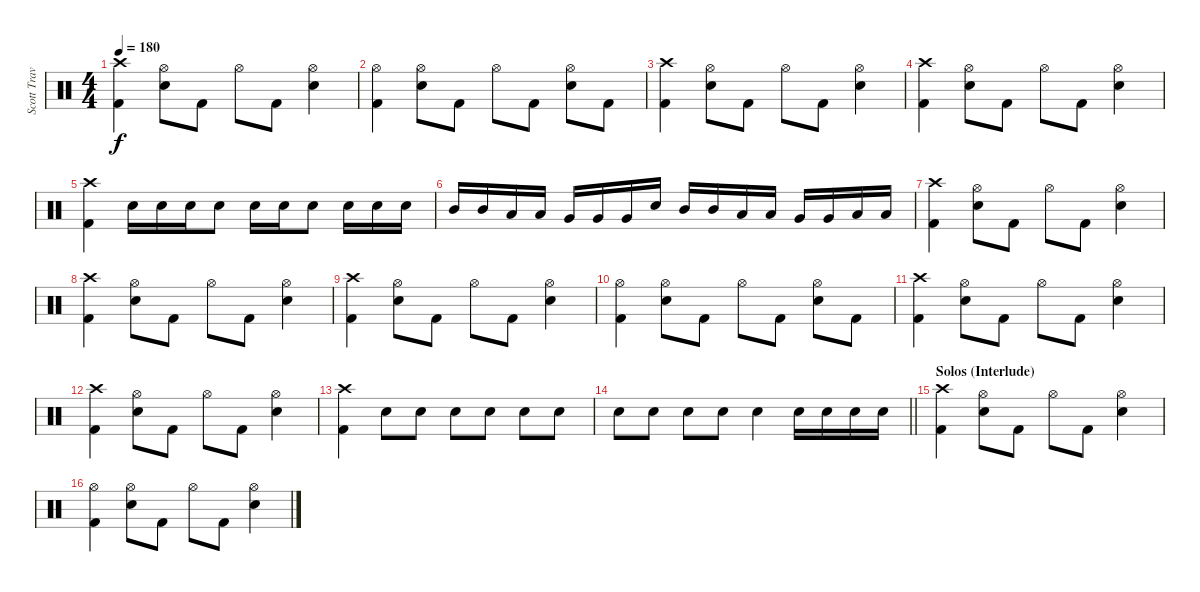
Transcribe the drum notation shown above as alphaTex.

\track ("Scott Travis" "Scott Trav") {instrument percussion}
\staff {score}
\articulation defaults
\ts (4 4)
\tempo 180
\clef neutral
\ks c
("Crash high (hit)" "Kick (hit) 2").4{dy f} ("Hi-Hat (open)" "Snare (hit) 2").8 "Kick (hit) 2".8 "Hi-Hat (open)".8 "Kick (hit) 2".8 ("Hi-Hat (open)" "Snare (hit) 2").4 |
("Hi-Hat (open)" "Kick (hit) 2").4 ("Hi-Hat (open)" "Snare (hit) 2").8 "Kick (hit) 2".8 "Hi-Hat (open)".8 "Kick (hit) 2".8 ("Hi-Hat (open)" "Snare (hit) 2").8 "Kick (hit) 2".8 |
("Crash high (hit)" "Kick (hit) 2").4 ("Hi-Hat (open)" "Snare (hit) 2").8 "Kick (hit) 2".8 "Hi-Hat (open)".8 "Kick (hit) 2".8 ("Hi-Hat (open)" "Snare (hit) 2").4 |
("Crash high (hit)" "Kick (hit) 2").4 ("Hi-Hat (open)" "Snare (hit) 2").8 "Kick (hit) 2".8 "Hi-Hat (open)".8 "Kick (hit) 2".8 ("Hi-Hat (open)" "Snare (hit) 2").4 |
("Crash high (hit)" "Kick (hit) 2").4 "Snare (hit) 2".16 "Snare (hit) 2".16 "Snare (hit) 2".16 "Snare (hit) 2".8 "Snare (hit) 2".16 "Snare (hit) 2".16 "Snare (hit) 2".8 "Snare (hit) 2".16 "Snare (hit) 2".16 "Snare (hit) 2".16 |
"Mid Tom (hit)".16 "Mid Tom (hit)".16 "Low Tom (hit)".16 "Low Tom (hit)".16 "Very Low Tom (hit)".16 "Very Low Tom (hit)".16 "Very Low Tom (hit)".16 "Snare (hit) 2".16 "Mid Tom (hit)".16 "Mid Tom (hit)".16 "Low Tom (hit)".16 "Low Tom (hit)".16 "Very Low Tom (hit)".16 "Very Low Tom (hit)".16 "Low Floor Tom (hit)".16 "Low Floor Tom (hit)".16 |
("Crash high (hit)" "Kick (hit) 2").4 ("Hi-Hat (open)" "Snare (hit) 2").8 "Kick (hit) 2".8 "Hi-Hat (open)".8 "Kick (hit) 2".8 ("Hi-Hat (open)" "Snare (hit) 2").4 |
("Crash high (hit)" "Kick (hit) 2").4 ("Hi-Hat (open)" "Snare (hit) 2").8 "Kick (hit) 2".8 "Hi-Hat (open)".8 "Kick (hit) 2".8 ("Hi-Hat (open)" "Snare (hit) 2").4 |
("Crash high (hit)" "Kick (hit) 2").4 ("Hi-Hat (open)" "Snare (hit) 2").8 "Kick (hit) 2".8 "Hi-Hat (open)".8 "Kick (hit) 2".8 ("Hi-Hat (open)" "Snare (hit) 2").4 |
("Hi-Hat (open)" "Kick (hit) 2").4 ("Hi-Hat (open)" "Snare (hit) 2").8 "Kick (hit) 2".8 "Hi-Hat (open)".8 "Kick (hit) 2".8 ("Hi-Hat (open)" "Snare (hit) 2").8 "Kick (hit) 2".8 |
("Crash high (hit)" "Kick (hit) 2").4 ("Hi-Hat (open)" "Snare (hit) 2").8 "Kick (hit) 2".8 "Hi-Hat (open)".8 "Kick (hit) 2".8 ("Hi-Hat (open)" "Snare (hit) 2").4 |
("Crash high (hit)" "Kick (hit) 2").4 ("Hi-Hat (open)" "Snare (hit) 2").8 "Kick (hit) 2".8 "Hi-Hat (open)".8 "Kick (hit) 2".8 ("Hi-Hat (open)" "Snare (hit) 2").4 |
("Crash high (hit)" "Kick (hit) 2").4 "Snare (hit) 2".8{volume 7} "Snare (hit) 2".8{volume 16} "Snare (hit) 2".8 "Snare (hit) 2".8 "Snare (hit) 2".8 "Snare (hit) 2".8 |
\barLineRight lightlight "Snare (hit) 2".8 "Snare (hit) 2".8 "Snare (hit) 2".8 "Snare (hit) 2".8 "Snare (hit) 2".4 "Snare (hit) 2".16 "Snare (hit) 2".16 "Snare (hit) 2".16 "Snare (hit) 2".16
|
\section ("" "Solos (Interlude)")
("Crash high (hit)" "Kick (hit) 2").4 ("Hi-Hat (open)" "Snare (hit) 2").8 "Kick (hit) 2".8 "Hi-Hat (open)".8 "Kick (hit) 2".8 ("Hi-Hat (open)" "Snare (hit) 2").4 |
("Hi-Hat (open)" "Kick (hit) 2").4 ("Hi-Hat (open)" "Snare (hit) 2").8 "Kick (hit) 2".8 "Hi-Hat (open)".8 "Kick (hit) 2".8 ("Hi-Hat (open)" "Snare (hit) 2").4
